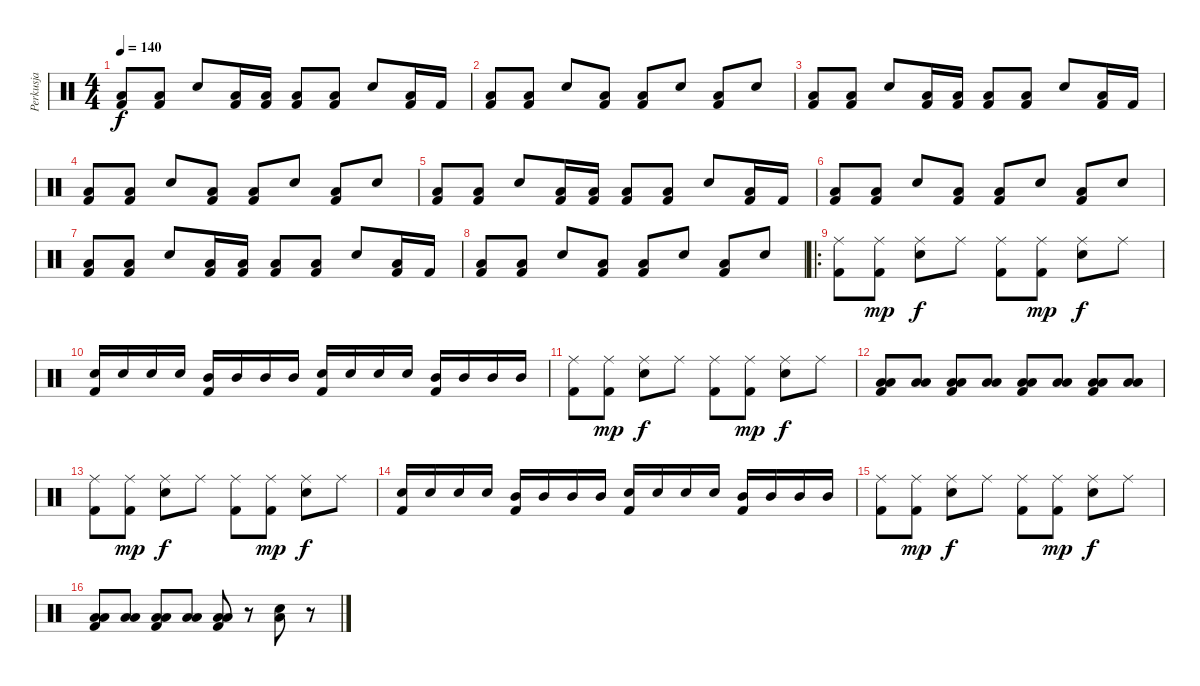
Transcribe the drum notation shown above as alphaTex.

\track ("Perkusja" "Perkusja") {instrument percussion}
\staff {score}
\articulation defaults
\ts (4 4)
\tempo 140
\clef neutral
\ks c
("Low Floor Tom (hit)" "Kick (hit) 2").8{dy f} ("Low Floor Tom (hit)" "Kick (hit) 2").8 "Snare (hit) 2".8 ("Low Floor Tom (hit)" "Kick (hit) 2").16 ("Low Floor Tom (hit)" "Kick (hit) 2").16 ("Low Floor Tom (hit)" "Kick (hit) 2").8 ("Low Floor Tom (hit)" "Kick (hit) 2").8 "Snare (hit) 2".8 ("Low Floor Tom (hit)" "Kick (hit) 2").16 "Kick (hit) 2".16 |
("Low Floor Tom (hit)" "Kick (hit) 2").8 ("Low Floor Tom (hit)" "Kick (hit) 2").8 "Snare (hit) 2".8 ("Low Floor Tom (hit)" "Kick (hit) 2").8 ("Low Floor Tom (hit)" "Kick (hit) 2").8 "Snare (hit) 2".8 ("Low Floor Tom (hit)" "Kick (hit) 2").8 "Snare (hit) 2".8 |
("Low Floor Tom (hit)" "Kick (hit) 2").8 ("Low Floor Tom (hit)" "Kick (hit) 2").8 "Snare (hit) 2".8 ("Low Floor Tom (hit)" "Kick (hit) 2").16 ("Low Floor Tom (hit)" "Kick (hit) 2").16 ("Low Floor Tom (hit)" "Kick (hit) 2").8 ("Low Floor Tom (hit)" "Kick (hit) 2").8 "Snare (hit) 2".8 ("Low Floor Tom (hit)" "Kick (hit) 2").16 "Kick (hit) 2".16 |
("Low Floor Tom (hit)" "Kick (hit) 2").8 ("Low Floor Tom (hit)" "Kick (hit) 2").8 "Snare (hit) 2".8 ("Low Floor Tom (hit)" "Kick (hit) 2").8 ("Low Floor Tom (hit)" "Kick (hit) 2").8 "Snare (hit) 2".8 ("Low Floor Tom (hit)" "Kick (hit) 2").8 "Snare (hit) 2".8 |
("Low Floor Tom (hit)" "Kick (hit) 2").8 ("Low Floor Tom (hit)" "Kick (hit) 2").8 "Snare (hit) 2".8 ("Low Floor Tom (hit)" "Kick (hit) 2").16 ("Low Floor Tom (hit)" "Kick (hit) 2").16 ("Low Floor Tom (hit)" "Kick (hit) 2").8 ("Low Floor Tom (hit)" "Kick (hit) 2").8 "Snare (hit) 2".8 ("Low Floor Tom (hit)" "Kick (hit) 2").16 "Kick (hit) 2".16 |
("Low Floor Tom (hit)" "Kick (hit) 2").8 ("Low Floor Tom (hit)" "Kick (hit) 2").8 "Snare (hit) 2".8 ("Low Floor Tom (hit)" "Kick (hit) 2").8 ("Low Floor Tom (hit)" "Kick (hit) 2").8 "Snare (hit) 2".8 ("Low Floor Tom (hit)" "Kick (hit) 2").8 "Snare (hit) 2".8 |
("Low Floor Tom (hit)" "Kick (hit) 2").8 ("Low Floor Tom (hit)" "Kick (hit) 2").8 "Snare (hit) 2".8 ("Low Floor Tom (hit)" "Kick (hit) 2").16 ("Low Floor Tom (hit)" "Kick (hit) 2").16 ("Low Floor Tom (hit)" "Kick (hit) 2").8 ("Low Floor Tom (hit)" "Kick (hit) 2").8 "Snare (hit) 2".8 ("Low Floor Tom (hit)" "Kick (hit) 2").16 "Kick (hit) 2".16 |
("Low Floor Tom (hit)" "Kick (hit) 2").8 ("Low Floor Tom (hit)" "Kick (hit) 2").8 "Snare (hit) 2".8 ("Low Floor Tom (hit)" "Kick (hit) 2").8 ("Low Floor Tom (hit)" "Kick (hit) 2").8 "Snare (hit) 2".8 ("Low Floor Tom (hit)" "Kick (hit) 2").8 "Snare (hit) 2".8 |
\ro
("Ride (middle)" "Kick (hit) 2").8 ("Ride (middle)" "Kick (hit) 2").8{dy mp} ("Ride (middle)" "Snare (hit) 2").8{dy f} "Ride (middle)".8 ("Ride (middle)" "Kick (hit) 2").8 ("Ride (middle)" "Kick (hit) 2").8{dy mp} ("Ride (middle)" "Snare (hit) 2").8{dy f} "Ride (middle)".8 |
("Snare (hit) 2" "Kick (hit) 2").16 "Snare (hit) 2".16 "Snare (hit) 2".16 "Snare (hit) 2".16 ("Mid Tom (hit)" "Kick (hit) 2").16 "Mid Tom (hit)".16 "Mid Tom (hit)".16 "Mid Tom (hit)".16 ("Snare (hit) 2" "Kick (hit) 2").16 "Snare (hit) 2".16 "Snare (hit) 2".16 "Snare (hit) 2".16 ("Mid Tom (hit)" "Kick (hit) 2").16 "Mid Tom (hit)".16 "Mid Tom (hit)".16 "Mid Tom (hit)".16 |
("Ride (middle)" "Kick (hit) 2").8 ("Ride (middle)" "Kick (hit) 2").8{dy mp} ("Ride (middle)" "Snare (hit) 2").8{dy f} "Ride (middle)".8 ("Ride (middle)" "Kick (hit) 2").8 ("Ride (middle)" "Kick (hit) 2").8{dy mp} ("Ride (middle)" "Snare (hit) 2").8{dy f} "Ride (middle)".8 |
("Low Floor Tom (hit)" "Low Tom (hit)" "Kick (hit) 2").8 ("Low Floor Tom (hit)" "Low Tom (hit)").8 ("Low Floor Tom (hit)" "Low Tom (hit)" "Kick (hit) 2").8 ("Low Floor Tom (hit)" "Low Tom (hit)").8 ("Low Floor Tom (hit)" "Low Tom (hit)" "Kick (hit) 2").8 ("Low Floor Tom (hit)" "Low Tom (hit)").8 ("Low Floor Tom (hit)" "Low Tom (hit)" "Kick (hit) 2").8 ("Low Floor Tom (hit)" "Low Tom (hit)").8 |
("Ride (middle)" "Kick (hit) 2").8 ("Ride (middle)" "Kick (hit) 2").8{dy mp} ("Ride (middle)" "Snare (hit) 2").8{dy f} "Ride (middle)".8 ("Ride (middle)" "Kick (hit) 2").8 ("Ride (middle)" "Kick (hit) 2").8{dy mp} ("Ride (middle)" "Snare (hit) 2").8{dy f} "Ride (middle)".8 |
("Snare (hit) 2" "Kick (hit) 2").16 "Snare (hit) 2".16 "Snare (hit) 2".16 "Snare (hit) 2".16 ("Mid Tom (hit)" "Kick (hit) 2").16 "Mid Tom (hit)".16 "Mid Tom (hit)".16 "Mid Tom (hit)".16 ("Snare (hit) 2" "Kick (hit) 2").16 "Snare (hit) 2".16 "Snare (hit) 2".16 "Snare (hit) 2".16 ("Mid Tom (hit)" "Kick (hit) 2").16 "Mid Tom (hit)".16 "Mid Tom (hit)".16 "Mid Tom (hit)".16 |
("Ride (middle)" "Kick (hit) 2").8 ("Ride (middle)" "Kick (hit) 2").8{dy mp} ("Ride (middle)" "Snare (hit) 2").8{dy f} "Ride (middle)".8 ("Ride (middle)" "Kick (hit) 2").8 ("Ride (middle)" "Kick (hit) 2").8{dy mp} ("Ride (middle)" "Snare (hit) 2").8{dy f} "Ride (middle)".8 |
("Low Floor Tom (hit)" "Low Tom (hit)" "Kick (hit) 2").8 ("Low Floor Tom (hit)" "Low Tom (hit)").8 ("Low Floor Tom (hit)" "Low Tom (hit)" "Kick (hit) 2").8 ("Low Floor Tom (hit)" "Low Tom (hit)").8 ("Low Floor Tom (hit)" "Low Tom (hit)" "Kick (hit) 2").8 r.8 ("Low Floor Tom (hit)" "Snare (hit) 2").8 r.8
